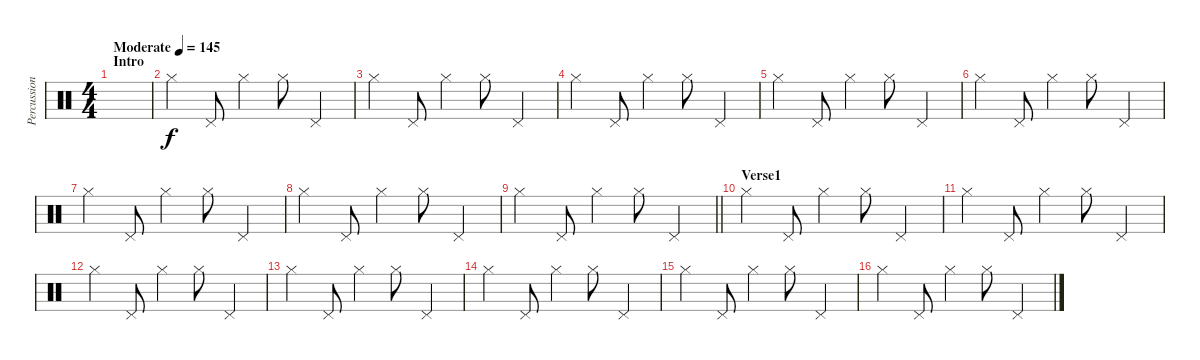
\track ("Percussion" "Percussion") {instrument percussion}
\staff {score}
\articulation defaults
\ts (4 4)
\section ("" "Intro")
\tempo (145 "Moderate")
\clef neutral
\ks c
|
"Hi-Hat (closed)".4 "Pedal Hi-Hat (hit)".8 "Hi-Hat (closed)".4 "Hi-Hat (closed)".8 "Pedal Hi-Hat (hit)".4 |
"Hi-Hat (closed)".4 "Pedal Hi-Hat (hit)".8 "Hi-Hat (closed)".4 "Hi-Hat (closed)".8 "Pedal Hi-Hat (hit)".4 |
"Hi-Hat (closed)".4 "Pedal Hi-Hat (hit)".8 "Hi-Hat (closed)".4 "Hi-Hat (closed)".8 "Pedal Hi-Hat (hit)".4 |
"Hi-Hat (closed)".4 "Pedal Hi-Hat (hit)".8 "Hi-Hat (closed)".4 "Hi-Hat (closed)".8 "Pedal Hi-Hat (hit)".4 |
"Hi-Hat (closed)".4 "Pedal Hi-Hat (hit)".8 "Hi-Hat (closed)".4 "Hi-Hat (closed)".8 "Pedal Hi-Hat (hit)".4 |
"Hi-Hat (closed)".4 "Pedal Hi-Hat (hit)".8 "Hi-Hat (closed)".4 "Hi-Hat (closed)".8 "Pedal Hi-Hat (hit)".4 |
"Hi-Hat (closed)".4 "Pedal Hi-Hat (hit)".8 "Hi-Hat (closed)".4 "Hi-Hat (closed)".8 "Pedal Hi-Hat (hit)".4 |
\barLineRight lightlight "Hi-Hat (closed)".4 "Pedal Hi-Hat (hit)".8 "Hi-Hat (closed)".4 "Hi-Hat (closed)".8 "Pedal Hi-Hat (hit)".4
|
\section ("" "Verse1")
"Hi-Hat (closed)".4 "Pedal Hi-Hat (hit)".8 "Hi-Hat (closed)".4 "Hi-Hat (closed)".8 "Pedal Hi-Hat (hit)".4 |
"Hi-Hat (closed)".4 "Pedal Hi-Hat (hit)".8 "Hi-Hat (closed)".4 "Hi-Hat (closed)".8 "Pedal Hi-Hat (hit)".4 |
"Hi-Hat (closed)".4 "Pedal Hi-Hat (hit)".8 "Hi-Hat (closed)".4 "Hi-Hat (closed)".8 "Pedal Hi-Hat (hit)".4 |
"Hi-Hat (closed)".4 "Pedal Hi-Hat (hit)".8 "Hi-Hat (closed)".4 "Hi-Hat (closed)".8 "Pedal Hi-Hat (hit)".4 |
"Hi-Hat (closed)".4 "Pedal Hi-Hat (hit)".8 "Hi-Hat (closed)".4 "Hi-Hat (closed)".8 "Pedal Hi-Hat (hit)".4 |
"Hi-Hat (closed)".4 "Pedal Hi-Hat (hit)".8 "Hi-Hat (closed)".4 "Hi-Hat (closed)".8 "Pedal Hi-Hat (hit)".4 |
"Hi-Hat (closed)".4 "Pedal Hi-Hat (hit)".8 "Hi-Hat (closed)".4 "Hi-Hat (closed)".8 "Pedal Hi-Hat (hit)".4
